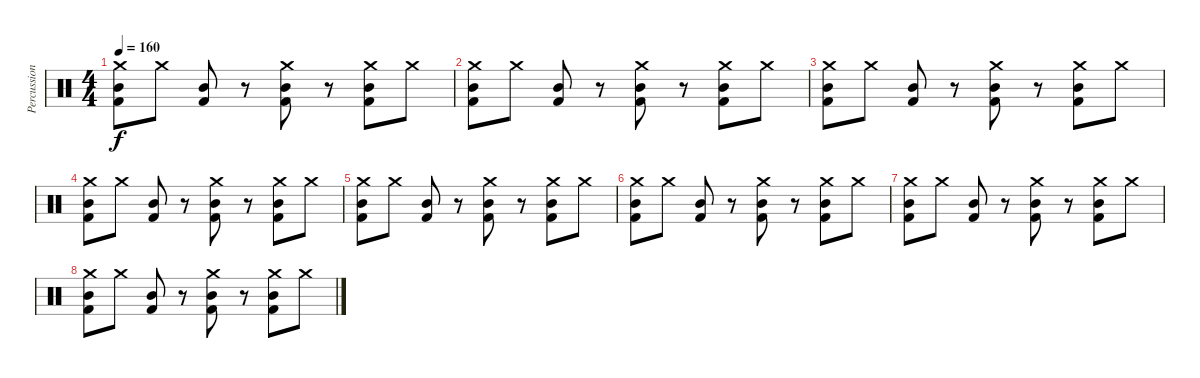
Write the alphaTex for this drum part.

\track ("Percussion" "Percussion") {instrument percussion}
\staff {score}
\articulation defaults
\ts (4 4)
\tempo 160
\clef neutral
\ks c
("Crash medium (hit)" "Mid Tom (hit)" "Kick (hit) 2").8{dy f} "Crash medium (hit)".8 ("Mid Tom (hit)" "Kick (hit) 2").8 r.8 ("Crash medium (hit)" "Mid Tom (hit)" "Kick (hit) 2").8 r.8 ("Crash medium (hit)" "Mid Tom (hit)" "Kick (hit) 2").8 "Crash medium (hit)".8 |
("Crash medium (hit)" "Mid Tom (hit)" "Kick (hit) 2").8 "Crash medium (hit)".8 ("Mid Tom (hit)" "Kick (hit) 2").8 r.8 ("Crash medium (hit)" "Mid Tom (hit)" "Kick (hit) 2").8 r.8 ("Crash medium (hit)" "Mid Tom (hit)" "Kick (hit) 2").8 "Crash medium (hit)".8 |
("Crash medium (hit)" "Mid Tom (hit)" "Kick (hit) 2").8 "Crash medium (hit)".8 ("Mid Tom (hit)" "Kick (hit) 2").8 r.8 ("Crash medium (hit)" "Mid Tom (hit)" "Kick (hit) 2").8 r.8 ("Crash medium (hit)" "Mid Tom (hit)" "Kick (hit) 2").8 "Crash medium (hit)".8 |
("Crash medium (hit)" "Mid Tom (hit)" "Kick (hit) 2").8 "Crash medium (hit)".8 ("Mid Tom (hit)" "Kick (hit) 2").8 r.8 ("Crash medium (hit)" "Mid Tom (hit)" "Kick (hit) 2").8 r.8 ("Crash medium (hit)" "Mid Tom (hit)" "Kick (hit) 2").8 "Crash medium (hit)".8 |
("Crash medium (hit)" "Mid Tom (hit)" "Kick (hit) 2").8 "Crash medium (hit)".8 ("Mid Tom (hit)" "Kick (hit) 2").8 r.8 ("Crash medium (hit)" "Mid Tom (hit)" "Kick (hit) 2").8 r.8 ("Crash medium (hit)" "Mid Tom (hit)" "Kick (hit) 2").8 "Crash medium (hit)".8 |
("Crash medium (hit)" "Mid Tom (hit)" "Kick (hit) 2").8 "Crash medium (hit)".8 ("Mid Tom (hit)" "Kick (hit) 2").8 r.8 ("Crash medium (hit)" "Mid Tom (hit)" "Kick (hit) 2").8 r.8 ("Crash medium (hit)" "Mid Tom (hit)" "Kick (hit) 2").8 "Crash medium (hit)".8 |
("Crash medium (hit)" "Mid Tom (hit)" "Kick (hit) 2").8 "Crash medium (hit)".8 ("Mid Tom (hit)" "Kick (hit) 2").8 r.8 ("Crash medium (hit)" "Mid Tom (hit)" "Kick (hit) 2").8 r.8 ("Crash medium (hit)" "Mid Tom (hit)" "Kick (hit) 2").8 "Crash medium (hit)".8 |
("Crash medium (hit)" "Mid Tom (hit)" "Kick (hit) 2").8 "Crash medium (hit)".8 ("Mid Tom (hit)" "Kick (hit) 2").8 r.8 ("Crash medium (hit)" "Mid Tom (hit)" "Kick (hit) 2").8 r.8 ("Crash medium (hit)" "Mid Tom (hit)" "Kick (hit) 2").8 "Crash medium (hit)".8
